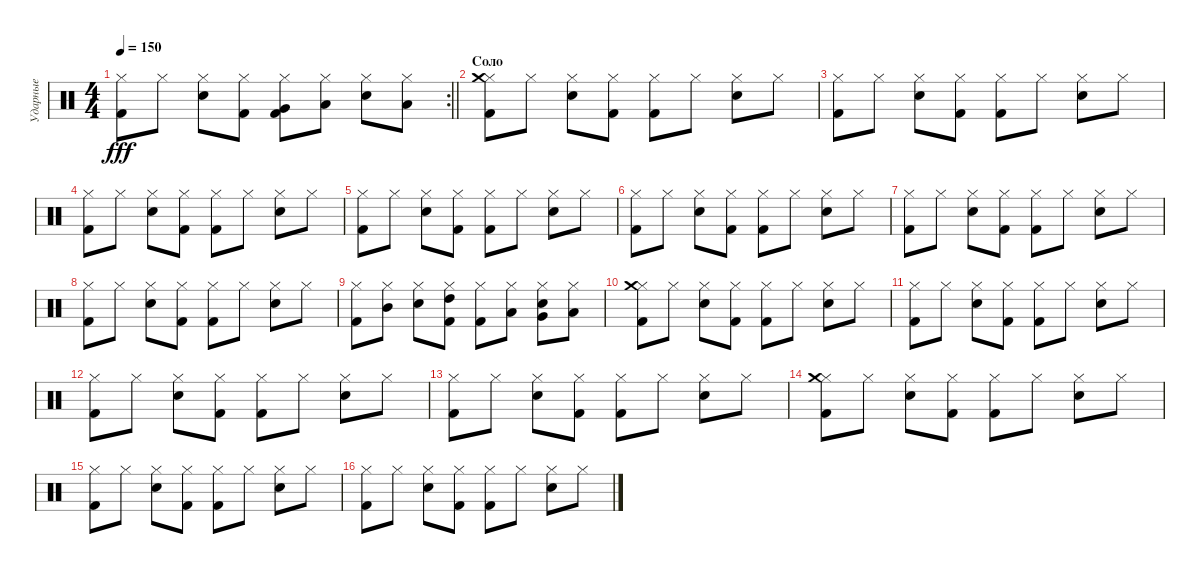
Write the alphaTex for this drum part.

\track ("Ударные" "Ударные") {instrument percussion}
\staff {score}
\articulation defaults
\rc 2
\ts (4 4)
\tempo 150
\clef neutral
\barLineRight lightlight
\ks c
("Kick (hit) 2" "Hi-Hat (closed)").8{dy fff} "Hi-Hat (closed)".8 ("Electric Snare (hit)" "Hi-Hat (closed)").8 ("Kick (hit) 2" "Hi-Hat (closed)").8 ("Hi-Hat (closed)" "Kick (hit) 2" "Very Low Tom (hit)").8 ("Hi-Hat (closed)" "Low Tom (hit)").8 ("Electric Snare (hit)" "Hi-Hat (closed)").8 ("Hi-Hat (closed)" "Low Floor Tom (hit)").8 |
\section ("" "Соло")
("Kick (hit) 2" "Hi-Hat (closed)" "Crash medium (hit)").8 "Hi-Hat (closed)".8 ("Electric Snare (hit)" "Hi-Hat (closed)").8 ("Kick (hit) 2" "Hi-Hat (closed)").8 ("Hi-Hat (closed)" "Kick (hit) 2").8 "Hi-Hat (closed)".8 ("Hi-Hat (closed)" "Electric Snare (hit)").8 "Hi-Hat (closed)".8 |
("Kick (hit) 2" "Hi-Hat (closed)").8 "Hi-Hat (closed)".8 ("Electric Snare (hit)" "Hi-Hat (closed)").8 ("Kick (hit) 2" "Hi-Hat (closed)").8 ("Hi-Hat (closed)" "Kick (hit) 2").8 "Hi-Hat (closed)".8 ("Hi-Hat (closed)" "Electric Snare (hit)").8 "Hi-Hat (closed)".8 |
("Kick (hit) 2" "Hi-Hat (closed)").8 "Hi-Hat (closed)".8 ("Electric Snare (hit)" "Hi-Hat (closed)").8 ("Kick (hit) 2" "Hi-Hat (closed)").8 ("Hi-Hat (closed)" "Kick (hit) 2").8 "Hi-Hat (closed)".8 ("Hi-Hat (closed)" "Electric Snare (hit)").8 "Hi-Hat (closed)".8 |
("Kick (hit) 2" "Hi-Hat (closed)").8 "Hi-Hat (closed)".8 ("Electric Snare (hit)" "Hi-Hat (closed)").8 ("Kick (hit) 2" "Hi-Hat (closed)").8 ("Hi-Hat (closed)" "Kick (hit) 2").8 "Hi-Hat (closed)".8 ("Hi-Hat (closed)" "Electric Snare (hit)").8 "Hi-Hat (closed)".8 |
("Kick (hit) 2" "Hi-Hat (closed)").8 "Hi-Hat (closed)".8 ("Electric Snare (hit)" "Hi-Hat (closed)").8 ("Kick (hit) 2" "Hi-Hat (closed)").8 ("Hi-Hat (closed)" "Kick (hit) 2").8 "Hi-Hat (closed)".8 ("Hi-Hat (closed)" "Electric Snare (hit)").8 "Hi-Hat (closed)".8 |
("Kick (hit) 2" "Hi-Hat (closed)").8 "Hi-Hat (closed)".8 ("Electric Snare (hit)" "Hi-Hat (closed)").8 ("Kick (hit) 2" "Hi-Hat (closed)").8 ("Hi-Hat (closed)" "Kick (hit) 2").8 "Hi-Hat (closed)".8 ("Hi-Hat (closed)" "Electric Snare (hit)").8 "Hi-Hat (closed)".8 |
("Kick (hit) 2" "Hi-Hat (closed)").8 "Hi-Hat (closed)".8 ("Electric Snare (hit)" "Hi-Hat (closed)").8 ("Kick (hit) 2" "Hi-Hat (closed)").8 ("Hi-Hat (closed)" "Kick (hit) 2").8 "Hi-Hat (closed)".8 ("Hi-Hat (closed)" "Electric Snare (hit)").8 "Hi-Hat (closed)".8 |
("Kick (hit) 2" "Hi-Hat (closed)").8 ("Hi-Hat (closed)" "Mid Tom (hit)").8 ("Electric Snare (hit)" "Hi-Hat (closed)").8 ("Kick (hit) 2" "Hi-Hat (closed)" "High Tom (hit)").8 ("Hi-Hat (closed)" "Kick (hit) 2").8 ("Hi-Hat (closed)" "Low Tom (hit)").8 ("Hi-Hat (closed)" "Electric Snare (hit)" "Very Low Tom (hit)").8 ("Hi-Hat (closed)" "Low Floor Tom (hit)").8 |
("Kick (hit) 2" "Hi-Hat (closed)" "Crash medium (hit)").8 "Hi-Hat (closed)".8 ("Electric Snare (hit)" "Hi-Hat (closed)").8 ("Kick (hit) 2" "Hi-Hat (closed)").8 ("Hi-Hat (closed)" "Kick (hit) 2").8 "Hi-Hat (closed)".8 ("Hi-Hat (closed)" "Electric Snare (hit)").8 "Hi-Hat (closed)".8 |
("Kick (hit) 2" "Hi-Hat (closed)").8 "Hi-Hat (closed)".8 ("Electric Snare (hit)" "Hi-Hat (closed)").8 ("Kick (hit) 2" "Hi-Hat (closed)").8 ("Hi-Hat (closed)" "Kick (hit) 2").8 "Hi-Hat (closed)".8 ("Hi-Hat (closed)" "Electric Snare (hit)").8 "Hi-Hat (closed)".8 |
("Kick (hit) 2" "Hi-Hat (closed)").8 "Hi-Hat (closed)".8 ("Electric Snare (hit)" "Hi-Hat (closed)").8 ("Kick (hit) 2" "Hi-Hat (closed)").8 ("Hi-Hat (closed)" "Kick (hit) 2").8 "Hi-Hat (closed)".8 ("Hi-Hat (closed)" "Electric Snare (hit)").8 "Hi-Hat (closed)".8 |
("Kick (hit) 2" "Hi-Hat (closed)").8 "Hi-Hat (closed)".8 ("Electric Snare (hit)" "Hi-Hat (closed)").8 ("Kick (hit) 2" "Hi-Hat (closed)").8 ("Hi-Hat (closed)" "Kick (hit) 2").8 "Hi-Hat (closed)".8 ("Hi-Hat (closed)" "Electric Snare (hit)").8 "Hi-Hat (closed)".8 |
("Kick (hit) 2" "Hi-Hat (closed)" "Crash medium (hit)").8 "Hi-Hat (closed)".8 ("Electric Snare (hit)" "Hi-Hat (closed)").8 ("Kick (hit) 2" "Hi-Hat (closed)").8 ("Hi-Hat (closed)" "Kick (hit) 2").8 "Hi-Hat (closed)".8 ("Hi-Hat (closed)" "Electric Snare (hit)").8 "Hi-Hat (closed)".8 |
("Kick (hit) 2" "Hi-Hat (closed)").8 "Hi-Hat (closed)".8 ("Electric Snare (hit)" "Hi-Hat (closed)").8 ("Kick (hit) 2" "Hi-Hat (closed)").8 ("Hi-Hat (closed)" "Kick (hit) 2").8 "Hi-Hat (closed)".8 ("Hi-Hat (closed)" "Electric Snare (hit)").8 "Hi-Hat (closed)".8 |
("Kick (hit) 2" "Hi-Hat (closed)").8 "Hi-Hat (closed)".8 ("Electric Snare (hit)" "Hi-Hat (closed)").8 ("Kick (hit) 2" "Hi-Hat (closed)").8 ("Hi-Hat (closed)" "Kick (hit) 2").8 "Hi-Hat (closed)".8 ("Hi-Hat (closed)" "Electric Snare (hit)").8 "Hi-Hat (closed)".8
